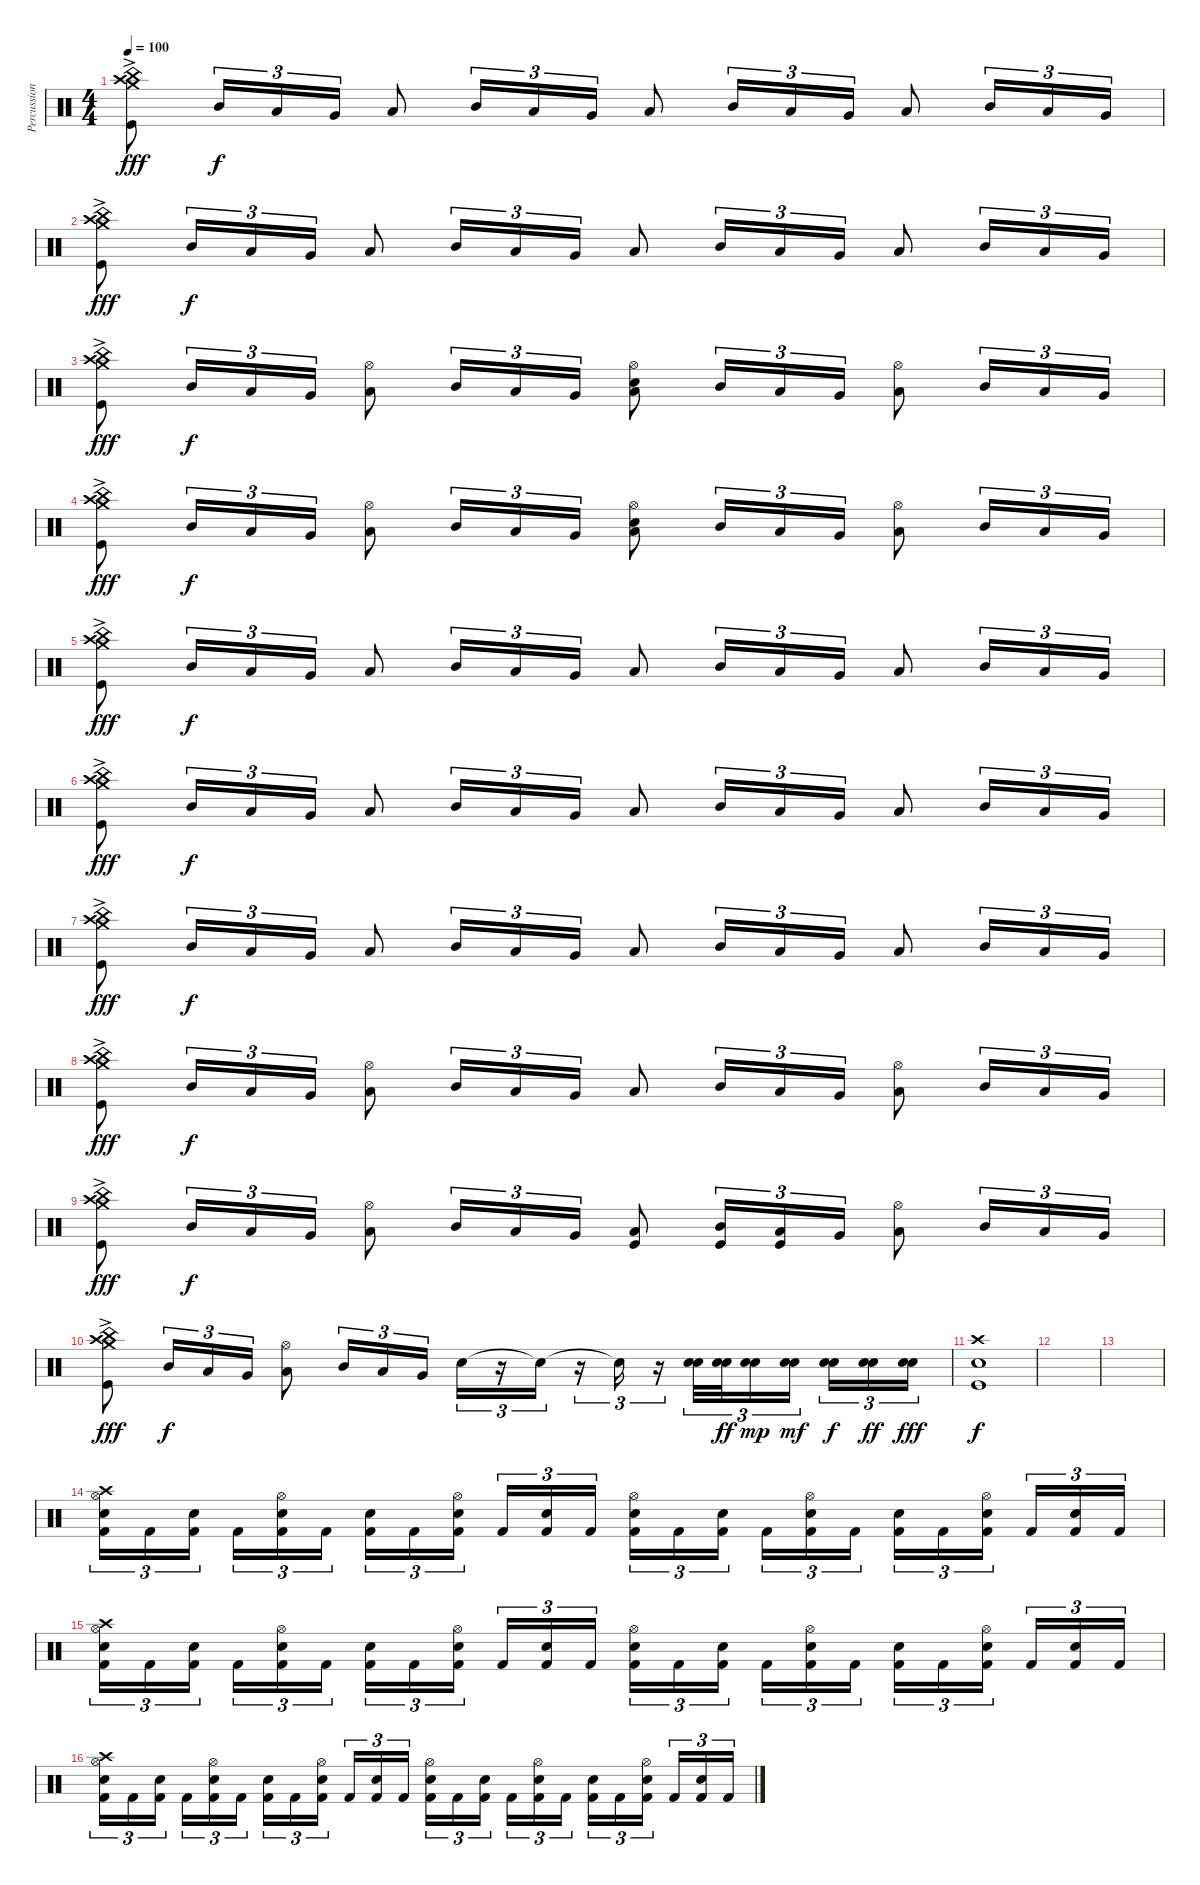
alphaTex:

\track ("Percussions" "Percussion") {instrument percussion}
\staff {score}
\articulation defaults
\ts (4 4)
\tempo 100
\clef neutral
\ks c
("China (hit)" "Crash medium (hit)" "Crash high (hit)"{ac} "Kick (hit)").8{dy fff} "Mid Tom (hit)".16{tu (3 2) dy f} "Low Tom (hit)".16{tu (3 2)} "Very Low Tom (hit)".16{tu (3 2)} "Low Floor Tom (hit)".8 "Mid Tom (hit)".16{tu (3 2)} "Low Tom (hit)".16{tu (3 2)} "Very Low Tom (hit)".16{tu (3 2)} "Low Floor Tom (hit)".8 "Mid Tom (hit)".16{tu (3 2)} "Low Tom (hit)".16{tu (3 2)} "Very Low Tom (hit)".16{tu (3 2)} "Low Floor Tom (hit)".8 "Mid Tom (hit)".16{tu (3 2)} "Low Tom (hit)".16{tu (3 2)} "Very Low Tom (hit)".16{tu (3 2)} |
("China (hit)" "Crash medium (hit)" "Crash high (hit)"{ac} "Kick (hit)").8{dy fff} "Mid Tom (hit)".16{tu (3 2) dy f} "Low Tom (hit)".16{tu (3 2)} "Very Low Tom (hit)".16{tu (3 2)} "Low Floor Tom (hit)".8 "Mid Tom (hit)".16{tu (3 2)} "Low Tom (hit)".16{tu (3 2)} "Very Low Tom (hit)".16{tu (3 2)} "Low Floor Tom (hit)".8 "Mid Tom (hit)".16{tu (3 2)} "Low Tom (hit)".16{tu (3 2)} "Very Low Tom (hit)".16{tu (3 2)} "Low Floor Tom (hit)".8 "Mid Tom (hit)".16{tu (3 2)} "Low Tom (hit)".16{tu (3 2)} "Very Low Tom (hit)".16{tu (3 2)} |
("China (hit)" "Crash medium (hit)" "Crash high (hit)"{ac} "Kick (hit)").8{dy fff} "Mid Tom (hit)".16{tu (3 2) dy f} "Low Tom (hit)".16{tu (3 2)} "Very Low Tom (hit)".16{tu (3 2)} ("Hi-Hat (open)" "Low Floor Tom (hit)").8 "Mid Tom (hit)".16{tu (3 2)} "Low Tom (hit)".16{tu (3 2)} "Very Low Tom (hit)".16{tu (3 2)} ("Low Floor Tom (hit)" "Snare (hit) 2" "Hi-Hat (open)").8 "Mid Tom (hit)".16{tu (3 2)} "Low Tom (hit)".16{tu (3 2)} "Very Low Tom (hit)".16{tu (3 2)} ("Low Floor Tom (hit)" "Hi-Hat (open)").8 "Mid Tom (hit)".16{tu (3 2)} "Low Tom (hit)".16{tu (3 2)} "Very Low Tom (hit)".16{tu (3 2)} |
("China (hit)" "Crash medium (hit)" "Crash high (hit)"{ac} "Kick (hit)").8{dy fff} "Mid Tom (hit)".16{tu (3 2) dy f} "Low Tom (hit)".16{tu (3 2)} "Very Low Tom (hit)".16{tu (3 2)} ("Hi-Hat (open)" "Low Floor Tom (hit)").8 "Mid Tom (hit)".16{tu (3 2)} "Low Tom (hit)".16{tu (3 2)} "Very Low Tom (hit)".16{tu (3 2)} ("Snare (hit) 2" "Hi-Hat (open)" "Low Floor Tom (hit)").8 "Mid Tom (hit)".16{tu (3 2)} "Low Tom (hit)".16{tu (3 2)} "Very Low Tom (hit)".16{tu (3 2)} ("Hi-Hat (open)" "Low Floor Tom (hit)").8 "Mid Tom (hit)".16{tu (3 2)} "Low Tom (hit)".16{tu (3 2)} "Very Low Tom (hit)".16{tu (3 2)} |
("China (hit)" "Crash medium (hit)" "Crash high (hit)"{ac} "Kick (hit)").8{dy fff} "Mid Tom (hit)".16{tu (3 2) dy f} "Low Tom (hit)".16{tu (3 2)} "Very Low Tom (hit)".16{tu (3 2)} "Low Floor Tom (hit)".8 "Mid Tom (hit)".16{tu (3 2)} "Low Tom (hit)".16{tu (3 2)} "Very Low Tom (hit)".16{tu (3 2)} "Low Floor Tom (hit)".8 "Mid Tom (hit)".16{tu (3 2)} "Low Tom (hit)".16{tu (3 2)} "Very Low Tom (hit)".16{tu (3 2)} "Low Floor Tom (hit)".8 "Mid Tom (hit)".16{tu (3 2)} "Low Tom (hit)".16{tu (3 2)} "Very Low Tom (hit)".16{tu (3 2)} |
("China (hit)" "Crash medium (hit)" "Crash high (hit)"{ac} "Kick (hit)").8{dy fff} "Mid Tom (hit)".16{tu (3 2) dy f} "Low Tom (hit)".16{tu (3 2)} "Very Low Tom (hit)".16{tu (3 2)} "Low Floor Tom (hit)".8 "Mid Tom (hit)".16{tu (3 2)} "Low Tom (hit)".16{tu (3 2)} "Very Low Tom (hit)".16{tu (3 2)} "Low Floor Tom (hit)".8 "Mid Tom (hit)".16{tu (3 2)} "Low Tom (hit)".16{tu (3 2)} "Very Low Tom (hit)".16{tu (3 2)} "Low Floor Tom (hit)".8 "Mid Tom (hit)".16{tu (3 2)} "Low Tom (hit)".16{tu (3 2)} "Very Low Tom (hit)".16{tu (3 2)} |
("China (hit)" "Crash medium (hit)" "Crash high (hit)"{ac} "Kick (hit)").8{dy fff} "Mid Tom (hit)".16{tu (3 2) dy f} "Low Tom (hit)".16{tu (3 2)} "Very Low Tom (hit)".16{tu (3 2)} "Low Floor Tom (hit)".8 "Mid Tom (hit)".16{tu (3 2)} "Low Tom (hit)".16{tu (3 2)} "Very Low Tom (hit)".16{tu (3 2)} "Low Floor Tom (hit)".8 "Mid Tom (hit)".16{tu (3 2)} "Low Tom (hit)".16{tu (3 2)} "Very Low Tom (hit)".16{tu (3 2)} "Low Floor Tom (hit)".8 "Mid Tom (hit)".16{tu (3 2)} "Low Tom (hit)".16{tu (3 2)} "Very Low Tom (hit)".16{tu (3 2)} |
("China (hit)" "Crash medium (hit)" "Crash high (hit)"{ac} "Kick (hit)").8{dy fff} "Mid Tom (hit)".16{tu (3 2) dy f} "Low Tom (hit)".16{tu (3 2)} "Very Low Tom (hit)".16{tu (3 2)} ("Hi-Hat (open)" "Low Floor Tom (hit)").8 "Mid Tom (hit)".16{tu (3 2)} "Low Tom (hit)".16{tu (3 2)} "Very Low Tom (hit)".16{tu (3 2)} "Low Floor Tom (hit)".8 "Mid Tom (hit)".16{tu (3 2)} "Low Tom (hit)".16{tu (3 2)} "Very Low Tom (hit)".16{tu (3 2)} ("Hi-Hat (open)" "Low Floor Tom (hit)").8 "Mid Tom (hit)".16{tu (3 2)} "Low Tom (hit)".16{tu (3 2)} "Very Low Tom (hit)".16{tu (3 2)} |
("China (hit)" "Crash medium (hit)" "Crash high (hit)"{ac} "Kick (hit)").8{dy fff} "Mid Tom (hit)".16{tu (3 2) dy f} "Low Tom (hit)".16{tu (3 2)} "Very Low Tom (hit)".16{tu (3 2)} ("Hi-Hat (open)" "Low Floor Tom (hit)").8 "Mid Tom (hit)".16{tu (3 2)} "Low Tom (hit)".16{tu (3 2)} "Very Low Tom (hit)".16{tu (3 2)} ("Low Floor Tom (hit)" "Kick (hit)").8 ("Mid Tom (hit)" "Kick (hit)").16{tu (3 2)} ("Low Tom (hit)" "Kick (hit)").16{tu (3 2)} "Very Low Tom (hit)".16{tu (3 2)} ("Hi-Hat (open)" "Low Floor Tom (hit)").8 "Mid Tom (hit)".16{tu (3 2)} "Low Tom (hit)".16{tu (3 2)} "Very Low Tom (hit)".16{tu (3 2)} |
("China (hit)" "Crash medium (hit)" "Crash high (hit)"{ac} "Kick (hit)").8{dy fff} "Mid Tom (hit)".16{tu (3 2) dy f} "Low Tom (hit)".16{tu (3 2)} "Very Low Tom (hit)".16{tu (3 2)} ("Hi-Hat (open)" "Low Floor Tom (hit)").8 "Mid Tom (hit)".16{tu (3 2)} "Low Tom (hit)".16{tu (3 2)} "Very Low Tom (hit)".16{tu (3 2)} "Snare (hit) 2".16{tu (3 2)} r.16{tu (3 2)} "Electric Snare (hit)"{t}.16{tu (3 2)} r.16{tu (3 2)} "Electric Snare (hit)"{t}.16{tu (3 2)} r.16{tu (3 2)} ("Snare (hit) 2" "Snare (hit) 2").32{tu (3 2)} ("Snare (hit) 2" "Snare (hit) 2").32{tu (3 2) dy ff} ("Electric Snare (hit)" "Electric Snare (hit)").16{tu (3 2) dy mp} ("Electric Snare (hit)" "Electric Snare (hit)").16{tu (3 2) dy mf} ("Electric Snare (hit)" "Electric Snare (hit)").16{tu (3 2) dy f} ("Electric Snare (hit)" "Electric Snare (hit)").16{tu (3 2) dy ff} ("Electric Snare (hit)" "Electric Snare (hit)").16{tu (3 2) dy fff} |
("Crash high (hit)" "Kick (hit)" "Electric Snare (hit)").1{dy f} |
|
|
("Hi-Hat (open)" "Crash high (hit)" "Snare (hit) 2" "Kick (hit) 2").16{tu (3 2)} "Kick (hit) 2".16{tu (3 2)} ("Snare (hit) 2" "Kick (hit) 2").16{tu (3 2)} "Kick (hit) 2".16{tu (3 2)} ("Hi-Hat (open)" "Snare (hit) 2" "Kick (hit) 2").16{tu (3 2)} "Kick (hit) 2".16{tu (3 2)} ("Snare (hit) 2" "Kick (hit) 2").16{tu (3 2)} "Kick (hit) 2".16{tu (3 2)} ("Hi-Hat (open)" "Snare (hit) 2" "Kick (hit) 2").16{tu (3 2)} "Kick (hit) 2".16{tu (3 2)} ("Snare (hit) 2" "Kick (hit) 2").16{tu (3 2)} "Kick (hit) 2".16{tu (3 2)} ("Hi-Hat (open)" "Snare (hit) 2" "Kick (hit) 2").16{tu (3 2)} "Kick (hit) 2".16{tu (3 2)} ("Snare (hit) 2" "Kick (hit) 2").16{tu (3 2)} "Kick (hit) 2".16{tu (3 2)} ("Hi-Hat (open)" "Snare (hit) 2" "Kick (hit) 2").16{tu (3 2)} "Kick (hit) 2".16{tu (3 2)} ("Snare (hit) 2" "Kick (hit) 2").16{tu (3 2)} "Kick (hit) 2".16{tu (3 2)} ("Hi-Hat (open)" "Snare (hit) 2" "Kick (hit) 2").16{tu (3 2)} "Kick (hit) 2".16{tu (3 2)} ("Snare (hit) 2" "Kick (hit) 2").16{tu (3 2)} "Kick (hit) 2".16{tu (3 2)} |
("Hi-Hat (open)" "Crash high (hit)" "Snare (hit) 2" "Kick (hit) 2").16{tu (3 2)} "Kick (hit) 2".16{tu (3 2)} ("Snare (hit) 2" "Kick (hit) 2").16{tu (3 2)} "Kick (hit) 2".16{tu (3 2)} ("Hi-Hat (open)" "Snare (hit) 2" "Kick (hit) 2").16{tu (3 2)} "Kick (hit) 2".16{tu (3 2)} ("Snare (hit) 2" "Kick (hit) 2").16{tu (3 2)} "Kick (hit) 2".16{tu (3 2)} ("Hi-Hat (open)" "Snare (hit) 2" "Kick (hit) 2").16{tu (3 2)} "Kick (hit) 2".16{tu (3 2)} ("Snare (hit) 2" "Kick (hit) 2").16{tu (3 2)} "Kick (hit) 2".16{tu (3 2)} ("Hi-Hat (open)" "Snare (hit) 2" "Kick (hit) 2").16{tu (3 2)} "Kick (hit) 2".16{tu (3 2)} ("Snare (hit) 2" "Kick (hit) 2").16{tu (3 2)} "Kick (hit) 2".16{tu (3 2)} ("Hi-Hat (open)" "Snare (hit) 2" "Kick (hit) 2").16{tu (3 2)} "Kick (hit) 2".16{tu (3 2)} ("Snare (hit) 2" "Kick (hit) 2").16{tu (3 2)} "Kick (hit) 2".16{tu (3 2)} ("Hi-Hat (open)" "Snare (hit) 2" "Kick (hit) 2").16{tu (3 2)} "Kick (hit) 2".16{tu (3 2)} ("Snare (hit) 2" "Kick (hit) 2").16{tu (3 2)} "Kick (hit) 2".16{tu (3 2)} |
("Hi-Hat (open)" "Crash high (hit)" "Snare (hit) 2" "Kick (hit) 2").16{tu (3 2)} "Kick (hit) 2".16{tu (3 2)} ("Snare (hit) 2" "Kick (hit) 2").16{tu (3 2)} "Kick (hit) 2".16{tu (3 2)} ("Hi-Hat (open)" "Snare (hit) 2" "Kick (hit) 2").16{tu (3 2)} "Kick (hit) 2".16{tu (3 2)} ("Snare (hit) 2" "Kick (hit) 2").16{tu (3 2)} "Kick (hit) 2".16{tu (3 2)} ("Hi-Hat (open)" "Snare (hit) 2" "Kick (hit) 2").16{tu (3 2)} "Kick (hit) 2".16{tu (3 2)} ("Snare (hit) 2" "Kick (hit) 2").16{tu (3 2)} "Kick (hit) 2".16{tu (3 2)} ("Hi-Hat (open)" "Snare (hit) 2" "Kick (hit) 2").16{tu (3 2)} "Kick (hit) 2".16{tu (3 2)} ("Snare (hit) 2" "Kick (hit) 2").16{tu (3 2)} "Kick (hit) 2".16{tu (3 2)} ("Hi-Hat (open)" "Snare (hit) 2" "Kick (hit) 2").16{tu (3 2)} "Kick (hit) 2".16{tu (3 2)} ("Snare (hit) 2" "Kick (hit) 2").16{tu (3 2)} "Kick (hit) 2".16{tu (3 2)} ("Hi-Hat (open)" "Snare (hit) 2" "Kick (hit) 2").16{tu (3 2)} "Kick (hit) 2".16{tu (3 2)} ("Snare (hit) 2" "Kick (hit) 2").16{tu (3 2)} "Kick (hit) 2".16{tu (3 2)}
